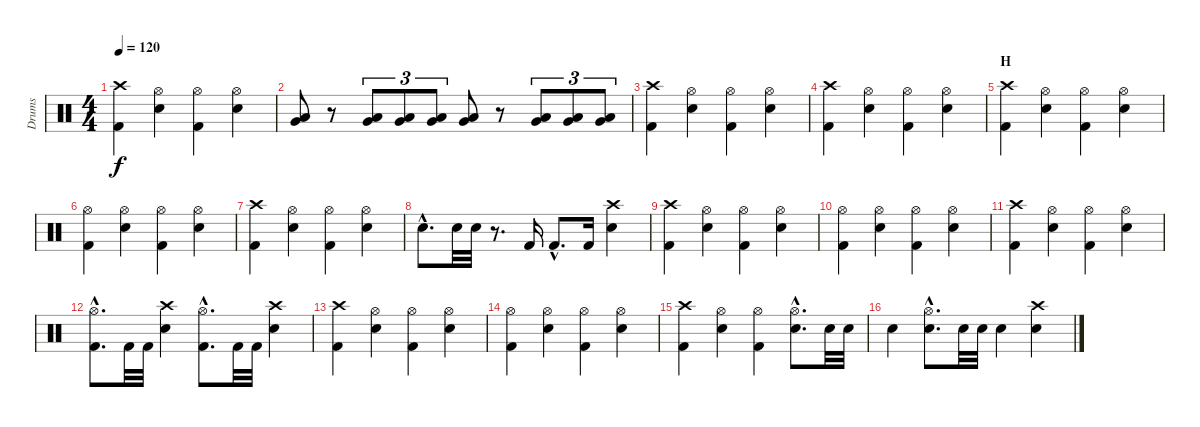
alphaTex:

\track ("Drums" "Drums") {instrument percussion}
\staff {score}
\articulation defaults
\ts (4 4)
\tempo 120
\clef neutral
\ks c
("Crash high (hit)" "Kick (hit) 2").4{dy f} ("Electric Snare (hit)" "Hi-Hat (open)").4 ("Hi-Hat (open)" "Kick (hit) 2").4 ("Electric Snare (hit)" "Hi-Hat (open)").4 |
("Low Floor Tom (hit)" "Very Low Tom (hit)").8 r.8 ("Low Floor Tom (hit)" "Very Low Tom (hit)").8{tu (3 2)} ("Low Floor Tom (hit)" "Very Low Tom (hit)").8{tu (3 2)} ("Low Floor Tom (hit)" "Very Low Tom (hit)").8{tu (3 2)} ("Low Floor Tom (hit)" "Very Low Tom (hit)").8 r.8 ("Low Floor Tom (hit)" "Very Low Tom (hit)").8{tu (3 2)} ("Low Floor Tom (hit)" "Very Low Tom (hit)").8{tu (3 2)} ("Low Floor Tom (hit)" "Very Low Tom (hit)").8{tu (3 2)} |
("Crash high (hit)" "Kick (hit) 2").4 ("Electric Snare (hit)" "Hi-Hat (open)").4 ("Hi-Hat (open)" "Kick (hit) 2").4 ("Electric Snare (hit)" "Hi-Hat (open)").4 |
("Crash high (hit)" "Kick (hit) 2").4 ("Electric Snare (hit)" "Hi-Hat (open)").4 ("Hi-Hat (open)" "Kick (hit) 2").4 ("Electric Snare (hit)" "Hi-Hat (open)").4 |
\section ("" "H")
("Crash high (hit)" "Kick (hit) 2").4 ("Hi-Hat (open)" "Electric Snare (hit)").4 ("Hi-Hat (open)" "Kick (hit) 2").4 ("Hi-Hat (open)" "Electric Snare (hit)").4 |
("Hi-Hat (open)" "Kick (hit) 2").4 ("Hi-Hat (open)" "Electric Snare (hit)").4 ("Hi-Hat (open)" "Kick (hit) 2").4 ("Hi-Hat (open)" "Electric Snare (hit)").4 |
("Crash high (hit)" "Kick (hit) 2").4 ("Hi-Hat (open)" "Electric Snare (hit)").4 ("Hi-Hat (open)" "Kick (hit) 2").4 ("Hi-Hat (open)" "Electric Snare (hit)").4 |
"Electric Snare (hit)"{hac}.8{d} "Electric Snare (hit)".32 "Electric Snare (hit)".32 r.8{d} "Kick (hit) 2".16 "Kick (hit) 2"{hac}.8{d} "Kick (hit) 2".16 ("Crash high (hit)" "Electric Snare (hit)").4 |
("Crash high (hit)" "Kick (hit) 2").4 ("Hi-Hat (open)" "Electric Snare (hit)").4 ("Hi-Hat (open)" "Kick (hit) 2").4 ("Hi-Hat (open)" "Electric Snare (hit)").4 |
("Hi-Hat (open)" "Kick (hit) 2").4 ("Hi-Hat (open)" "Electric Snare (hit)").4 ("Hi-Hat (open)" "Kick (hit) 2").4 ("Hi-Hat (open)" "Electric Snare (hit)").4 |
("Crash high (hit)" "Kick (hit) 2").4 ("Hi-Hat (open)" "Electric Snare (hit)").4 ("Hi-Hat (open)" "Kick (hit) 2").4 ("Hi-Hat (open)" "Electric Snare (hit)").4 |
("Hi-Hat (open)"{hac} "Kick (hit) 2"{hac}).8{d} "Kick (hit) 2".32 "Kick (hit) 2".32 ("Crash high (hit)" "Electric Snare (hit)").4 ("Hi-Hat (open)"{hac} "Kick (hit) 2"{hac}).8{d} "Kick (hit) 2".32 "Kick (hit) 2".32 ("Crash high (hit)" "Electric Snare (hit)").4 |
("Crash high (hit)" "Kick (hit) 2").4 ("Hi-Hat (open)" "Electric Snare (hit)").4 ("Hi-Hat (open)" "Kick (hit) 2").4 ("Hi-Hat (open)" "Electric Snare (hit)").4 |
("Hi-Hat (open)" "Kick (hit) 2").4 ("Hi-Hat (open)" "Electric Snare (hit)").4 ("Hi-Hat (open)" "Kick (hit) 2").4 ("Hi-Hat (open)" "Electric Snare (hit)").4 |
("Crash high (hit)" "Kick (hit) 2").4 ("Hi-Hat (open)" "Electric Snare (hit)").4 ("Hi-Hat (open)" "Kick (hit) 2").4 ("Hi-Hat (open)"{hac} "Electric Snare (hit)"{hac}).8{d} "Electric Snare (hit)".32 "Electric Snare (hit)".32 |
"Electric Snare (hit)".4 ("Hi-Hat (open)"{hac} "Electric Snare (hit)"{hac}).8{d} "Electric Snare (hit)".32 "Electric Snare (hit)".32 "Electric Snare (hit)".4 ("Crash high (hit)" "Electric Snare (hit)").4
